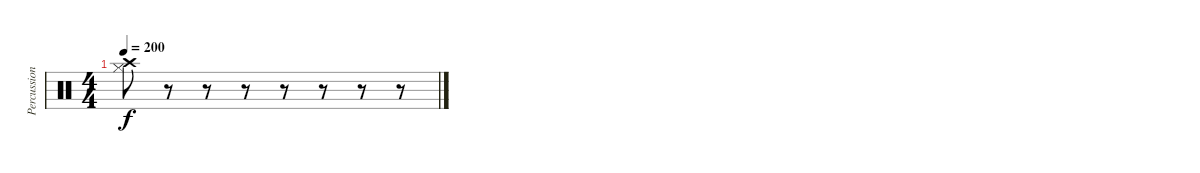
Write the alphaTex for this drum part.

\track ("Percussion" "Percussion") {instrument percussion}
\staff {score}
\articulation defaults
\ts (4 4)
\tempo 200
\clef neutral
\ks c
("Hi-Hat (closed)" "Crash high (hit)").8{dy f} r.8 r.8 r.8 r.8 r.8 r.8 r.8
